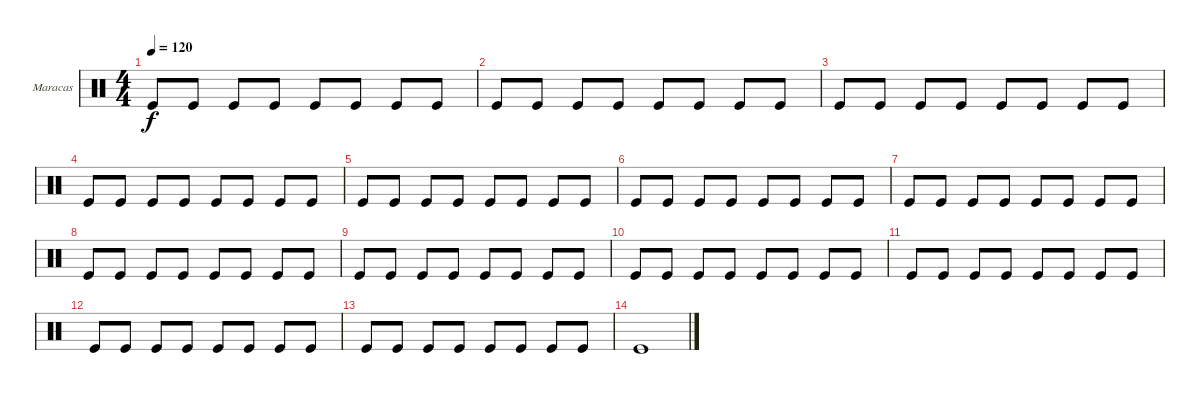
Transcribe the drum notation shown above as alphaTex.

\defaultSystemsLayout 4
\bracketExtendMode groupsimilarinstruments
\firstSystemTrackNameOrientation horizontal
\otherSystemsTrackNameOrientation horizontal
\track ("Maracas" "Maracas") {multiBarRest instrument percussion}
\staff {score}
\articulation defaults
\ts (4 4)
\tempo 120
\clef neutral
\ks c "Kick (hit)".8{dy f} "Kick (hit)".8 "Kick (hit)".8 "Kick (hit)".8 "Kick (hit)".8 "Kick (hit)".8 "Kick (hit)".8 "Kick (hit)".8
|
"Kick (hit)".8 "Kick (hit)".8 "Kick (hit)".8 "Kick (hit)".8 "Kick (hit)".8 "Kick (hit)".8 "Kick (hit)".8 "Kick (hit)".8 |
"Kick (hit)".8 "Kick (hit)".8 "Kick (hit)".8 "Kick (hit)".8 "Kick (hit)".8 "Kick (hit)".8 "Kick (hit)".8 "Kick (hit)".8 |
"Kick (hit)".8 "Kick (hit)".8 "Kick (hit)".8 "Kick (hit)".8 "Kick (hit)".8 "Kick (hit)".8 "Kick (hit)".8 "Kick (hit)".8 |
"Kick (hit)".8 "Kick (hit)".8 "Kick (hit)".8 "Kick (hit)".8 "Kick (hit)".8 "Kick (hit)".8 "Kick (hit)".8 "Kick (hit)".8 |
"Kick (hit)".8 "Kick (hit)".8 "Kick (hit)".8 "Kick (hit)".8 "Kick (hit)".8 "Kick (hit)".8 "Kick (hit)".8 "Kick (hit)".8 |
"Kick (hit)".8 "Kick (hit)".8 "Kick (hit)".8 "Kick (hit)".8 "Kick (hit)".8 "Kick (hit)".8 "Kick (hit)".8 "Kick (hit)".8 |
"Kick (hit)".8 "Kick (hit)".8 "Kick (hit)".8 "Kick (hit)".8 "Kick (hit)".8 "Kick (hit)".8 "Kick (hit)".8 "Kick (hit)".8 |
"Kick (hit)".8 "Kick (hit)".8 "Kick (hit)".8 "Kick (hit)".8 "Kick (hit)".8 "Kick (hit)".8 "Kick (hit)".8 "Kick (hit)".8 |
"Kick (hit)".8 "Kick (hit)".8 "Kick (hit)".8 "Kick (hit)".8 "Kick (hit)".8 "Kick (hit)".8 "Kick (hit)".8 "Kick (hit)".8 |
"Kick (hit)".8 "Kick (hit)".8 "Kick (hit)".8 "Kick (hit)".8 "Kick (hit)".8 "Kick (hit)".8 "Kick (hit)".8 "Kick (hit)".8 |
"Kick (hit)".8 "Kick (hit)".8 "Kick (hit)".8 "Kick (hit)".8 "Kick (hit)".8 "Kick (hit)".8 "Kick (hit)".8 "Kick (hit)".8 |
"Kick (hit)".8 "Kick (hit)".8 "Kick (hit)".8 "Kick (hit)".8 "Kick (hit)".8 "Kick (hit)".8 "Kick (hit)".8 "Kick (hit)".8 |
"Kick (hit)".1
